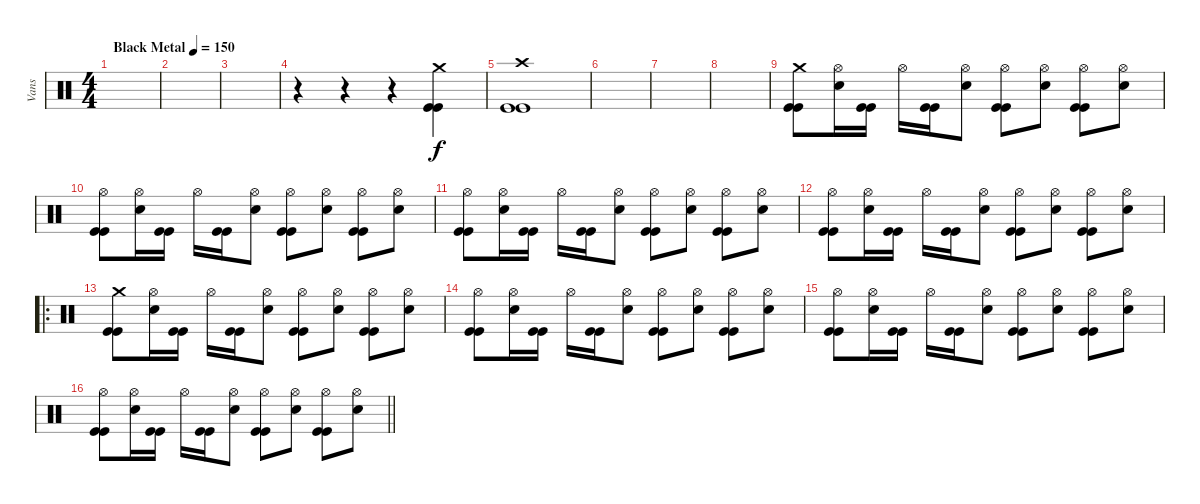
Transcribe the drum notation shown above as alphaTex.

\track ("Vans" "Vans") {instrument percussion}
\staff {score}
\articulation defaults
\ts (4 4)
\tempo (150 "Black Metal")
\clef neutral
\ks c
|
|
|
r.4 r.4 r.4 ("Crash medium (hit)" "Kick (hit)" "Kick (hit)").4 |
("Crash high (hit)" "Kick (hit)" "Kick (hit)").1 |
|
|
|
("Crash medium (hit)" "Kick (hit)" "Kick (hit)").8 ("Hi-Hat (open)" "Snare (hit) 2").16 ("Kick (hit)" "Kick (hit)").16 "Hi-Hat (open)".16 ("Kick (hit)" "Kick (hit)").16 ("Hi-Hat (open)" "Snare (hit) 2").8 ("Hi-Hat (open)" "Kick (hit)" "Kick (hit)").8 ("Hi-Hat (open)" "Snare (hit) 2").8 ("Hi-Hat (open)" "Kick (hit)" "Kick (hit)").8 ("Hi-Hat (open)" "Snare (hit) 2").8 |
("Hi-Hat (open)" "Kick (hit)" "Kick (hit)").8 ("Hi-Hat (open)" "Snare (hit) 2").16 ("Kick (hit)" "Kick (hit)").16 "Hi-Hat (open)".16 ("Kick (hit)" "Kick (hit)").16 ("Hi-Hat (open)" "Snare (hit) 2").8 ("Hi-Hat (open)" "Kick (hit)" "Kick (hit)").8 ("Hi-Hat (open)" "Snare (hit) 2").8 ("Hi-Hat (open)" "Kick (hit)" "Kick (hit)").8 ("Hi-Hat (open)" "Snare (hit) 2").8 |
("Hi-Hat (open)" "Kick (hit)" "Kick (hit)").8 ("Hi-Hat (open)" "Snare (hit) 2").16 ("Kick (hit)" "Kick (hit)").16 "Hi-Hat (open)".16 ("Kick (hit)" "Kick (hit)").16 ("Hi-Hat (open)" "Snare (hit) 2").8 ("Hi-Hat (open)" "Kick (hit)" "Kick (hit)").8 ("Hi-Hat (open)" "Snare (hit) 2").8 ("Hi-Hat (open)" "Kick (hit)" "Kick (hit)").8 ("Hi-Hat (open)" "Snare (hit) 2").8 |
("Hi-Hat (open)" "Kick (hit)" "Kick (hit)").8 ("Hi-Hat (open)" "Snare (hit) 2").16 ("Kick (hit)" "Kick (hit)").16 "Hi-Hat (open)".16 ("Kick (hit)" "Kick (hit)").16 ("Hi-Hat (open)" "Snare (hit) 2").8 ("Hi-Hat (open)" "Kick (hit)" "Kick (hit)").8 ("Hi-Hat (open)" "Snare (hit) 2").8 ("Hi-Hat (open)" "Kick (hit)" "Kick (hit)").8 ("Hi-Hat (open)" "Snare (hit) 2").8 |
\ro
("Crash medium (hit)" "Kick (hit)" "Kick (hit)").8 ("Hi-Hat (open)" "Snare (hit) 2").16 ("Kick (hit)" "Kick (hit)").16 "Hi-Hat (open)".16 ("Kick (hit)" "Kick (hit)").16 ("Hi-Hat (open)" "Snare (hit) 2").8 ("Hi-Hat (open)" "Kick (hit)" "Kick (hit)").8 ("Hi-Hat (open)" "Snare (hit) 2").8 ("Hi-Hat (open)" "Kick (hit)" "Kick (hit)").8 ("Hi-Hat (open)" "Snare (hit) 2").8 |
("Hi-Hat (open)" "Kick (hit)" "Kick (hit)").8 ("Hi-Hat (open)" "Snare (hit) 2").16 ("Kick (hit)" "Kick (hit)").16 "Hi-Hat (open)".16 ("Kick (hit)" "Kick (hit)").16 ("Hi-Hat (open)" "Snare (hit) 2").8 ("Hi-Hat (open)" "Kick (hit)" "Kick (hit)").8 ("Hi-Hat (open)" "Snare (hit) 2").8 ("Hi-Hat (open)" "Kick (hit)" "Kick (hit)").8 ("Hi-Hat (open)" "Snare (hit) 2").8 |
("Hi-Hat (open)" "Kick (hit)" "Kick (hit)").8 ("Hi-Hat (open)" "Snare (hit) 2").16 ("Kick (hit)" "Kick (hit)").16 "Hi-Hat (open)".16 ("Kick (hit)" "Kick (hit)").16 ("Hi-Hat (open)" "Snare (hit) 2").8 ("Hi-Hat (open)" "Kick (hit)" "Kick (hit)").8 ("Hi-Hat (open)" "Snare (hit) 2").8 ("Hi-Hat (open)" "Kick (hit)" "Kick (hit)").8 ("Hi-Hat (open)" "Snare (hit) 2").8 |
\barLineRight lightlight
("Hi-Hat (open)" "Kick (hit)" "Kick (hit)").8 ("Hi-Hat (open)" "Snare (hit) 2").16 ("Kick (hit)" "Kick (hit)").16 "Hi-Hat (open)".16 ("Kick (hit)" "Kick (hit)").16 ("Hi-Hat (open)" "Snare (hit) 2").8 ("Hi-Hat (open)" "Kick (hit)" "Kick (hit)").8 ("Hi-Hat (open)" "Snare (hit) 2").8 ("Hi-Hat (open)" "Kick (hit)" "Kick (hit)").8 ("Hi-Hat (open)" "Snare (hit) 2").8
